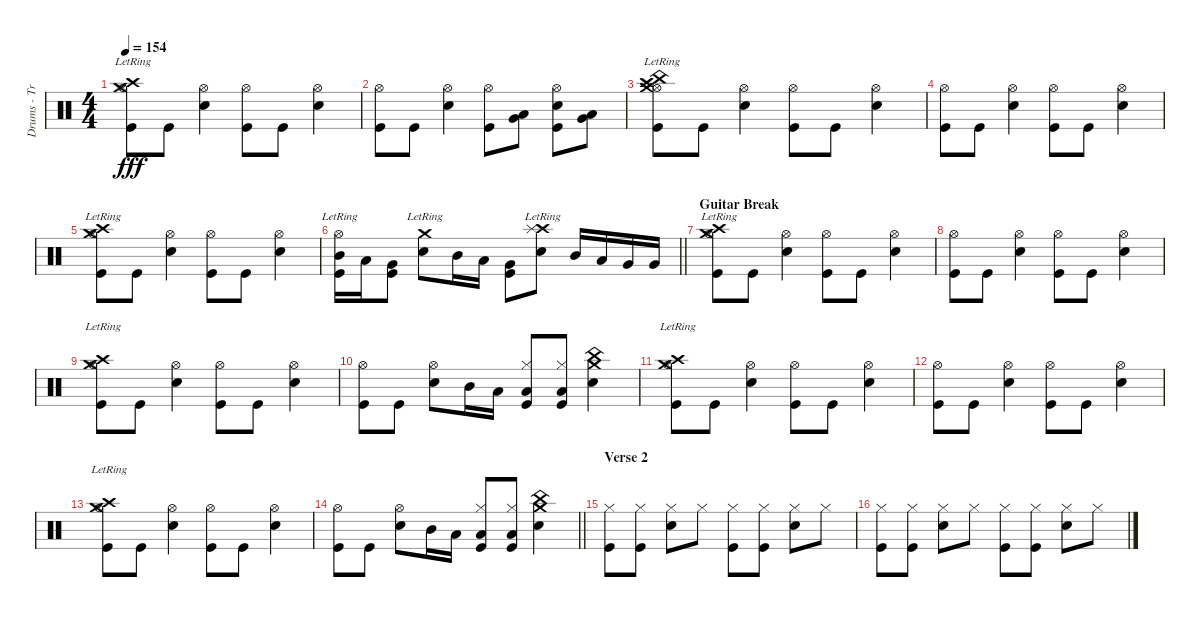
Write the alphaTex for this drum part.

\track ("Drums - Travis" "Drums - Tr") {instrument percussion}
\staff {score}
\articulation defaults
\ts (4 4)
\tempo 154
\clef neutral
\ks c
("Crash high (hit)"{lr} "Hi-Hat (open)" "Crash medium (hit)"{lr} "Kick (hit)").8{dy fff} "Kick (hit)".8 ("Hi-Hat (open)" "Snare (hit) 2").4 ("Hi-Hat (open)" "Kick (hit)").8 "Kick (hit)".8 ("Hi-Hat (open)" "Snare (hit) 2").4 |
("Hi-Hat (open)" "Kick (hit)").8 "Kick (hit)".8 ("Hi-Hat (open)" "Snare (hit) 2").4 ("Hi-Hat (open)" "Kick (hit)").8 ("Very Low Tom (hit)" "Low Tom (hit)").8 ("Hi-Hat (open)" "Snare (hit) 2" "Kick (hit)").8 ("Very Low Tom (hit)" "Low Tom (hit)").8 |
("Crash high (hit)"{lr} "Hi-Hat (open)" "Crash medium (hit)"{lr} "Kick (hit)" "China (hit)").8 "Kick (hit)".8 ("Hi-Hat (open)" "Snare (hit) 2").4 ("Hi-Hat (open)" "Kick (hit)").8 "Kick (hit)".8 ("Hi-Hat (open)" "Snare (hit) 2").4 |
("Hi-Hat (open)" "Kick (hit)").8 "Kick (hit)".8 ("Hi-Hat (open)" "Snare (hit) 2").4 ("Hi-Hat (open)" "Kick (hit)").8 "Kick (hit)".8 ("Hi-Hat (open)" "Snare (hit) 2").4 |
("Crash high (hit)"{lr} "Hi-Hat (open)" "Crash medium (hit)"{lr} "Kick (hit)").8 "Kick (hit)".8 ("Hi-Hat (open)" "Snare (hit) 2").4 ("Hi-Hat (open)" "Kick (hit)").8 "Kick (hit)".8 ("Hi-Hat (open)" "Snare (hit) 2").4 |
\barLineRight lightlight
("Hi-Hat (open)"{lr} "Mid Tom (hit)" "Kick (hit)").16 "Low Tom (hit)".16 ("Very Low Tom (hit)" "Kick (hit)").8 ("Crash medium (hit)"{lr} "Snare (hit) 2").8 "Mid Tom (hit)".16 "Low Tom (hit)".16 ("Very Low Tom (hit)" "Kick (hit)").8 ("Crash high (hit)"{lr} "Splash (hit)"{lr} "Snare (hit) 2").8 "Mid Tom (hit)".16 "Low Tom (hit)".16 "Very Low Tom (hit)".16 "Very Low Tom (hit)".16 |
\section ("" "Guitar Break")
("Crash high (hit)"{lr} "Hi-Hat (open)" "Crash medium (hit)"{lr} "Kick (hit)").8 "Kick (hit)".8 ("Hi-Hat (open)" "Snare (hit) 2").4 ("Hi-Hat (open)" "Kick (hit)").8 "Kick (hit)".8 ("Hi-Hat (open)" "Snare (hit) 2").4 |
("Hi-Hat (open)" "Kick (hit)").8 "Kick (hit)".8 ("Hi-Hat (open)" "Snare (hit) 2").4 ("Hi-Hat (open)" "Kick (hit)").8 "Kick (hit)".8 ("Hi-Hat (open)" "Snare (hit) 2").4 |
("Crash high (hit)"{lr} "Hi-Hat (open)" "Crash medium (hit)"{lr} "Kick (hit)").8 "Kick (hit)".8 ("Hi-Hat (open)" "Snare (hit) 2").4 ("Hi-Hat (open)" "Kick (hit)").8 "Kick (hit)".8 ("Hi-Hat (open)" "Snare (hit) 2").4 |
("Hi-Hat (open)" "Kick (hit)").8 "Kick (hit)".8 ("Hi-Hat (open)" "Snare (hit) 2").8 "Mid Tom (hit)".16 "Low Tom (hit)".16 ("Hi-Hat (closed)" "Low Floor Tom (hit)" "Kick (hit)").8 ("Hi-Hat (closed)" "Low Floor Tom (hit)" "Kick (hit)").8 ("Crash medium (hit)" "China (hit)" "Snare (hit) 2").4 |
("Crash high (hit)"{lr} "Hi-Hat (open)" "Crash medium (hit)"{lr} "Kick (hit)").8 "Kick (hit)".8 ("Hi-Hat (open)" "Snare (hit) 2").4 ("Hi-Hat (open)" "Kick (hit)").8 "Kick (hit)".8 ("Hi-Hat (open)" "Snare (hit) 2").4 |
("Hi-Hat (open)" "Kick (hit)").8 "Kick (hit)".8 ("Hi-Hat (open)" "Snare (hit) 2").4 ("Hi-Hat (open)" "Kick (hit)").8 "Kick (hit)".8 ("Hi-Hat (open)" "Snare (hit) 2").4 |
("Crash high (hit)"{lr} "Hi-Hat (open)" "Crash medium (hit)"{lr} "Kick (hit)").8 "Kick (hit)".8 ("Hi-Hat (open)" "Snare (hit) 2").4 ("Hi-Hat (open)" "Kick (hit)").8 "Kick (hit)".8 ("Hi-Hat (open)" "Snare (hit) 2").4 |
\barLineRight lightlight
("Hi-Hat (open)" "Kick (hit)").8 "Kick (hit)".8 ("Hi-Hat (open)" "Snare (hit) 2").8 "Mid Tom (hit)".16 "Low Tom (hit)".16 ("Hi-Hat (closed)" "Low Floor Tom (hit)" "Kick (hit)").8 ("Hi-Hat (closed)" "Low Floor Tom (hit)" "Kick (hit)").8 ("Crash medium (hit)" "China (hit)" "Snare (hit) 2").4 |
\section ("" "Verse 2 ")
("Hi-Hat (closed)" "Kick (hit)").8 ("Hi-Hat (closed)" "Kick (hit)").8 ("Hi-Hat (closed)" "Snare (hit) 2").8 "Hi-Hat (closed)".8 ("Hi-Hat (closed)" "Kick (hit)").8 ("Hi-Hat (closed)" "Kick (hit)").8 ("Hi-Hat (closed)" "Snare (hit) 2").8 "Hi-Hat (closed)".8 |
("Hi-Hat (closed)" "Kick (hit)").8 ("Hi-Hat (closed)" "Kick (hit)").8 ("Hi-Hat (closed)" "Snare (hit) 2").8 "Hi-Hat (closed)".8 ("Hi-Hat (closed)" "Kick (hit)").8 ("Hi-Hat (closed)" "Kick (hit)").8 ("Hi-Hat (closed)" "Snare (hit) 2").8 "Hi-Hat (closed)".8
